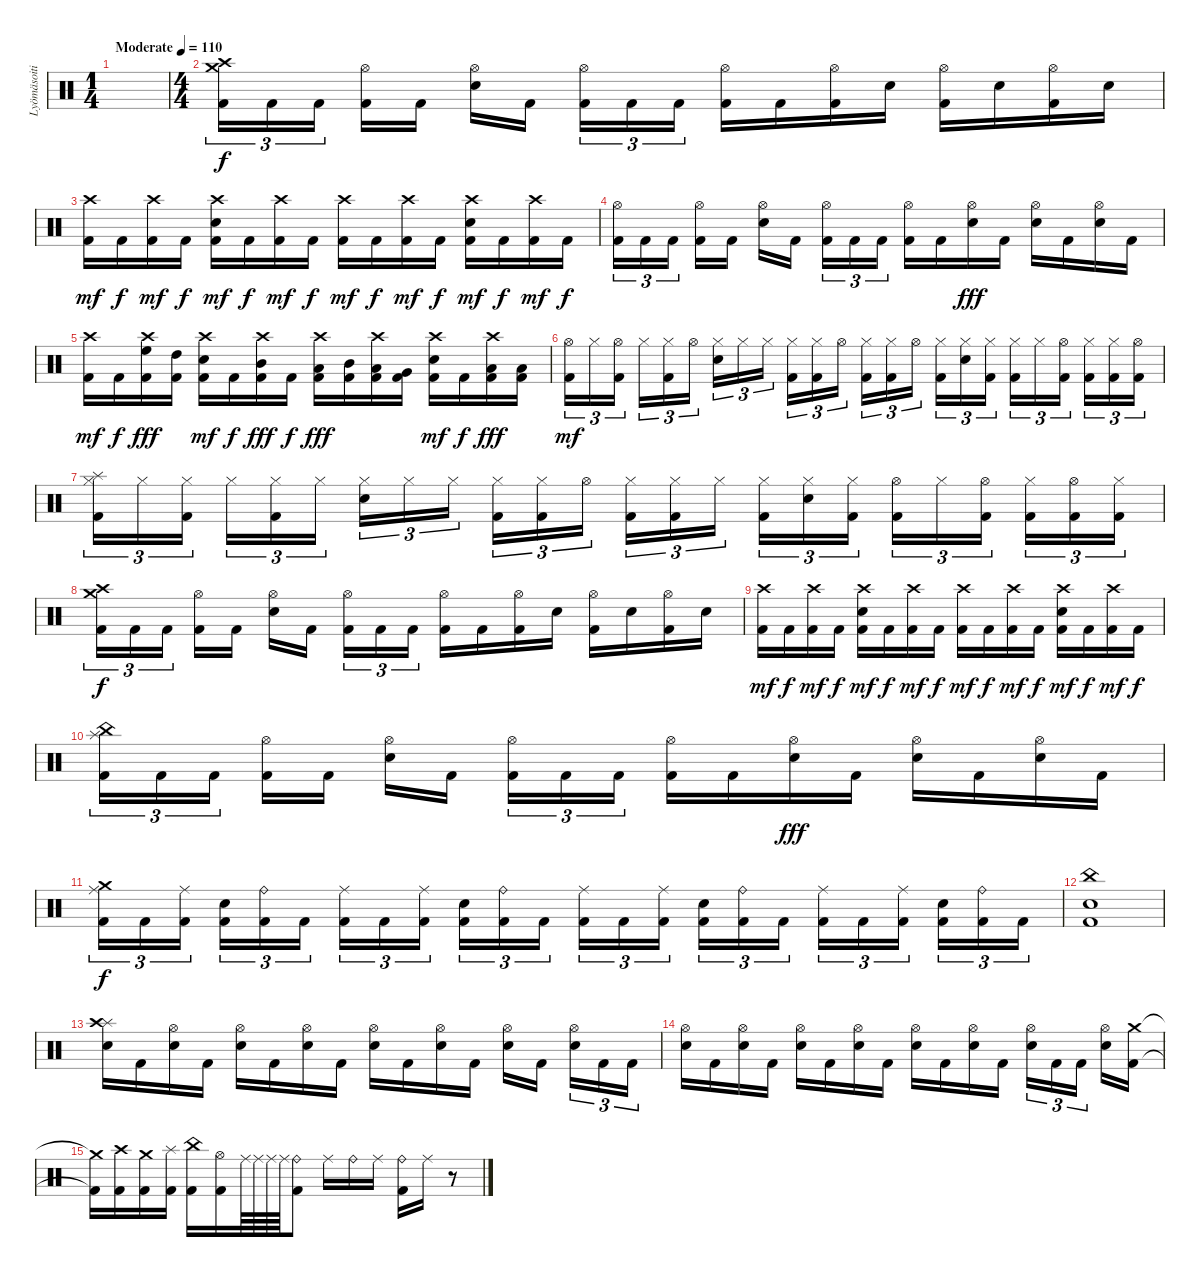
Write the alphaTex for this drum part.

\track ("Lyömäsoitin" "Lyömäsoiti") {mute instrument percussion}
\staff {score}
\articulation defaults
\ts (1 4)
\tempo (110 "Moderate")
\clef neutral
\ks c
|
\ts (4 4)
("Crash high (hit)" "Crash medium (hit)" "Kick (hit) 2").16{tu (3 2)} "Kick (hit) 2".16{tu (3 2)} "Kick (hit) 2".16{tu (3 2) beam splitsecondary} ("Hi-Hat (open)" "Kick (hit) 2").16 "Kick (hit) 2".16 ("Hi-Hat (open)" "Electric Snare (hit)").16 "Kick (hit) 2".16{beam splitsecondary} ("Hi-Hat (open)" "Kick (hit) 2").16{tu (3 2)} "Kick (hit) 2".16{tu (3 2)} "Kick (hit) 2".16{tu (3 2)} ("Hi-Hat (open)" "Kick (hit) 2").16 "Kick (hit) 2".16 ("Hi-Hat (open)" "Kick (hit) 2").16 "Electric Snare (hit)".16 ("Hi-Hat (open)" "Kick (hit) 2").16 "Electric Snare (hit)".16 ("Hi-Hat (open)" "Kick (hit) 2").16 "Electric Snare (hit)".16 |
("Crash high (hit)" "Kick (hit) 2").16{dy mf} "Kick (hit) 2".16{dy f} ("Crash high (hit)" "Kick (hit) 2").16{dy mf} "Kick (hit) 2".16{dy f} ("Crash high (hit)" "Electric Snare (hit)" "Kick (hit) 2").16{dy mf} "Kick (hit) 2".16{dy f} ("Crash high (hit)" "Kick (hit) 2").16{dy mf} "Kick (hit) 2".16{dy f} ("Crash high (hit)" "Kick (hit) 2").16{dy mf} "Kick (hit) 2".16{dy f} ("Crash high (hit)" "Kick (hit) 2").16{dy mf} "Kick (hit) 2".16{dy f} ("Crash high (hit)" "Electric Snare (hit)" "Kick (hit) 2").16{dy mf} "Kick (hit) 2".16{dy f} ("Crash high (hit)" "Kick (hit) 2").16{dy mf} "Kick (hit) 2".16{dy f} |
("Hi-Hat (open)" "Kick (hit) 2").16{tu (3 2)} "Kick (hit) 2".16{tu (3 2)} "Kick (hit) 2".16{tu (3 2) beam splitsecondary} ("Hi-Hat (open)" "Kick (hit) 2").16 "Kick (hit) 2".16 ("Hi-Hat (open)" "Electric Snare (hit)").16 "Kick (hit) 2".16{beam splitsecondary} ("Hi-Hat (open)" "Kick (hit) 2").16{tu (3 2)} "Kick (hit) 2".16{tu (3 2)} "Kick (hit) 2".16{tu (3 2)} ("Hi-Hat (open)" "Kick (hit) 2").16 "Kick (hit) 2".16 ("Hi-Hat (open)" "Electric Snare (hit)").16{dy fff} "Kick (hit) 2".16 ("Hi-Hat (open)" "Electric Snare (hit)").16 "Kick (hit) 2".16 ("Hi-Hat (open)" "Electric Snare (hit)").16 "Kick (hit) 2".16 |
("Crash high (hit)" "Kick (hit) 2").16{dy mf} "Kick (hit) 2".16{dy f} ("Crash high (hit)" "High Floor Tom (hit)" "Kick (hit) 2").16{dy fff} ("High Tom (hit)" "Kick (hit) 2").16 ("Crash high (hit)" "Electric Snare (hit)" "Kick (hit) 2").16{dy mf} "Kick (hit) 2".16{dy f} ("Crash high (hit)" "Mid Tom (hit)" "Kick (hit) 2").16{dy fff} "Kick (hit) 2".16{dy f} ("Crash high (hit)" "Low Tom (hit)" "Kick (hit) 2").16{dy fff} ("Mid Tom (hit)" "Kick (hit) 2").16 ("Crash high (hit)" "Low Tom (hit)" "Kick (hit) 2").16 ("Very Low Tom (hit)" "Kick (hit) 2").16 ("Crash high (hit)" "Electric Snare (hit)" "Kick (hit) 2").16{dy mf} "Kick (hit) 2".16{dy f} ("Crash high (hit)" "Low Floor Tom (hit)" "Kick (hit) 2").16{dy fff} ("Low Floor Tom (hit)" "Kick (hit) 2").16 |
("Hi-Hat (open)" "Kick (hit) 2").16{tu (3 2) dy mf} "Hi-Hat (closed)".16{tu (3 2)} ("Hi-Hat (open)" "Kick (hit) 2").16{tu (3 2) beam splitsecondary} "Hi-Hat (closed)".16{tu (3 2)} ("Hi-Hat (closed)" "Kick (hit) 2").16{tu (3 2)} "Hi-Hat (open)".16{tu (3 2)} ("Hi-Hat (closed)" "Electric Snare (hit)").16{tu (3 2)} "Hi-Hat (closed)".16{tu (3 2)} "Hi-Hat (closed)".16{tu (3 2) beam splitsecondary} ("Hi-Hat (closed)" "Kick (hit) 2").16{tu (3 2)} ("Hi-Hat (closed)" "Kick (hit) 2").16{tu (3 2)} "Hi-Hat (open)".16{tu (3 2)} ("Hi-Hat (closed)" "Kick (hit) 2").16{tu (3 2)} ("Hi-Hat (closed)" "Kick (hit) 2").16{tu (3 2)} "Hi-Hat (open)".16{tu (3 2) beam splitsecondary} ("Hi-Hat (closed)" "Kick (hit) 2").16{tu (3 2)} ("Hi-Hat (closed)" "Electric Snare (hit)").16{tu (3 2)} ("Hi-Hat (closed)" "Kick (hit) 2").16{tu (3 2)} ("Hi-Hat (closed)" "Kick (hit) 2").16{tu (3 2)} "Hi-Hat (closed)".16{tu (3 2)} ("Hi-Hat (open)" "Kick (hit) 2").16{tu (3 2) beam splitsecondary} ("Hi-Hat (closed)" "Kick (hit) 2").16{tu (3 2)} ("Hi-Hat (closed)" "Kick (hit) 2").16{tu (3 2)} ("Hi-Hat (open)" "Kick (hit) 2").16{tu (3 2)} |
("Splash (hit)" "Hi-Hat (closed)" "Kick (hit) 2").16{tu (3 2)} "Hi-Hat (closed)".16{tu (3 2)} ("Hi-Hat (closed)" "Kick (hit) 2").16{tu (3 2) beam splitsecondary} "Hi-Hat (closed)".16{tu (3 2)} ("Hi-Hat (closed)" "Kick (hit) 2").16{tu (3 2)} "Hi-Hat (closed)".16{tu (3 2)} ("Hi-Hat (closed)" "Electric Snare (hit)").16{tu (3 2)} "Hi-Hat (closed)".16{tu (3 2)} "Hi-Hat (closed)".16{tu (3 2) beam splitsecondary} ("Hi-Hat (closed)" "Kick (hit) 2").16{tu (3 2)} ("Hi-Hat (closed)" "Kick (hit) 2").16{tu (3 2)} "Hi-Hat (open)".16{tu (3 2)} ("Hi-Hat (closed)" "Kick (hit) 2").16{tu (3 2)} ("Hi-Hat (closed)" "Kick (hit) 2").16{tu (3 2)} "Hi-Hat (closed)".16{tu (3 2) beam splitsecondary} ("Hi-Hat (closed)" "Kick (hit) 2").16{tu (3 2)} ("Hi-Hat (closed)" "Electric Snare (hit)").16{tu (3 2)} ("Hi-Hat (closed)" "Kick (hit) 2").16{tu (3 2)} ("Hi-Hat (open)" "Kick (hit) 2").16{tu (3 2)} "Hi-Hat (closed)".16{tu (3 2)} ("Hi-Hat (open)" "Kick (hit) 2").16{tu (3 2) beam splitsecondary} ("Hi-Hat (closed)" "Kick (hit) 2").16{tu (3 2)} ("Hi-Hat (open)" "Kick (hit) 2").16{tu (3 2)} ("Hi-Hat (closed)" "Kick (hit) 2").16{tu (3 2)} |
("Crash high (hit)" "Crash medium (hit)" "Kick (hit) 2").16{tu (3 2) dy f} "Kick (hit) 2".16{tu (3 2)} "Kick (hit) 2".16{tu (3 2) beam splitsecondary} ("Hi-Hat (open)" "Kick (hit) 2").16 "Kick (hit) 2".16 ("Hi-Hat (open)" "Electric Snare (hit)").16 "Kick (hit) 2".16{beam splitsecondary} ("Hi-Hat (open)" "Kick (hit) 2").16{tu (3 2)} "Kick (hit) 2".16{tu (3 2)} "Kick (hit) 2".16{tu (3 2)} ("Hi-Hat (open)" "Kick (hit) 2").16 "Kick (hit) 2".16 ("Hi-Hat (open)" "Kick (hit) 2").16 "Electric Snare (hit)".16 ("Hi-Hat (open)" "Kick (hit) 2").16 "Electric Snare (hit)".16 ("Hi-Hat (open)" "Kick (hit) 2").16 "Electric Snare (hit)".16 |
("Crash high (hit)" "Kick (hit) 2").16{dy mf} "Kick (hit) 2".16{dy f} ("Crash high (hit)" "Kick (hit) 2").16{dy mf} "Kick (hit) 2".16{dy f} ("Crash high (hit)" "Electric Snare (hit)" "Kick (hit) 2").16{dy mf} "Kick (hit) 2".16{dy f} ("Crash high (hit)" "Kick (hit) 2").16{dy mf} "Kick (hit) 2".16{dy f} ("Crash high (hit)" "Kick (hit) 2").16{dy mf} "Kick (hit) 2".16{dy f} ("Crash high (hit)" "Kick (hit) 2").16{dy mf} "Kick (hit) 2".16{dy f} ("Crash high (hit)" "Electric Snare (hit)" "Kick (hit) 2").16{dy mf} "Kick (hit) 2".16{dy f} ("Crash high (hit)" "Kick (hit) 2").16{dy mf} "Kick (hit) 2".16{dy f} |
("Splash (hit)" "China (hit)" "Kick (hit) 2").16{tu (3 2)} "Kick (hit) 2".16{tu (3 2)} "Kick (hit) 2".16{tu (3 2) beam splitsecondary} ("Hi-Hat (open)" "Kick (hit) 2").16 "Kick (hit) 2".16 ("Hi-Hat (open)" "Electric Snare (hit)").16 "Kick (hit) 2".16{beam splitsecondary} ("Hi-Hat (open)" "Kick (hit) 2").16{tu (3 2)} "Kick (hit) 2".16{tu (3 2)} "Kick (hit) 2".16{tu (3 2)} ("Hi-Hat (open)" "Kick (hit) 2").16 "Kick (hit) 2".16 ("Hi-Hat (open)" "Electric Snare (hit)").16{dy fff} "Kick (hit) 2".16 ("Hi-Hat (open)" "Electric Snare (hit)").16 "Kick (hit) 2".16 ("Hi-Hat (open)" "Electric Snare (hit)").16 "Kick (hit) 2".16 |
("Crash medium (hit)" "Ride (middle)" "Kick (hit) 2").16{tu (3 2) dy f} "Kick (hit) 2".16{tu (3 2)} ("Ride (middle)" "Kick (hit) 2").16{tu (3 2) beam splitsecondary} ("Electric Snare (hit)" "Kick (hit) 2").16{tu (3 2)} ("Ride (bell)" "Kick (hit) 2").16{tu (3 2)} "Kick (hit) 2".16{tu (3 2)} ("Ride (middle)" "Kick (hit) 2").16{tu (3 2)} "Kick (hit) 2".16{tu (3 2)} ("Ride (middle)" "Kick (hit) 2").16{tu (3 2) beam splitsecondary} ("Electric Snare (hit)" "Kick (hit) 2").16{tu (3 2)} ("Ride (bell)" "Kick (hit) 2").16{tu (3 2)} "Kick (hit) 2".16{tu (3 2)} ("Ride (middle)" "Kick (hit) 2").16{tu (3 2)} "Kick (hit) 2".16{tu (3 2)} ("Ride (middle)" "Kick (hit) 2").16{tu (3 2) beam splitsecondary} ("Electric Snare (hit)" "Kick (hit) 2").16{tu (3 2)} ("Ride (bell)" "Kick (hit) 2").16{tu (3 2)} "Kick (hit) 2".16{tu (3 2)} ("Ride (middle)" "Kick (hit) 2").16{tu (3 2)} "Kick (hit) 2".16{tu (3 2)} ("Ride (middle)" "Kick (hit) 2").16{tu (3 2) beam splitsecondary} ("Electric Snare (hit)" "Kick (hit) 2").16{tu (3 2)} ("Ride (bell)" "Kick (hit) 2").16{tu (3 2)} "Kick (hit) 2".16{tu (3 2)} |
("China (hit)" "Electric Snare (hit)" "Kick (hit) 2").1 |
("Splash (hit)" "Crash high (hit)" "Electric Snare (hit)").16 "Kick (hit) 2".16 ("Hi-Hat (open)" "Electric Snare (hit)").16 "Kick (hit) 2".16 ("Hi-Hat (open)" "Electric Snare (hit)").16 "Kick (hit) 2".16 ("Hi-Hat (open)" "Electric Snare (hit)").16 "Kick (hit) 2".16 ("Hi-Hat (open)" "Electric Snare (hit)").16 "Kick (hit) 2".16 ("Hi-Hat (open)" "Electric Snare (hit)").16 "Kick (hit) 2".16 ("Hi-Hat (open)" "Electric Snare (hit)").16 "Kick (hit) 2".16{beam splitsecondary} ("Hi-Hat (open)" "Electric Snare (hit)").16{tu (3 2)} "Kick (hit) 2".16{tu (3 2)} "Kick (hit) 2".16{tu (3 2)} |
("Hi-Hat (open)" "Electric Snare (hit)").16 "Kick (hit) 2".16 ("Hi-Hat (open)" "Electric Snare (hit)").16 "Kick (hit) 2".16 ("Hi-Hat (open)" "Electric Snare (hit)").16 "Kick (hit) 2".16 ("Hi-Hat (open)" "Electric Snare (hit)").16 "Kick (hit) 2".16 ("Hi-Hat (open)" "Electric Snare (hit)").16 "Kick (hit) 2".16 ("Hi-Hat (open)" "Electric Snare (hit)").16 "Kick (hit) 2".16 ("Hi-Hat (open)" "Electric Snare (hit)").16{tu (3 2)} "Kick (hit) 2".16{tu (3 2)} "Kick (hit) 2".16{tu (3 2) beam splitsecondary} ("Hi-Hat (open)" "Electric Snare (hit)").16 ("Crash medium (hit)" "Kick (hit) 2").16 |
("Crash medium (hit)"{t} "Kick (hit) 2"{t}).16 ("Crash high (hit)" "Kick (hit) 2").16 ("Crash medium (hit)" "Kick (hit) 2").16 ("Splash (hit)" "Kick (hit) 2").16 ("China (hit)" "Kick (hit) 2").16 ("Hi-Hat (open)" "Kick (hit) 2").16 "Ride (middle)".64 "Ride (middle)".64 "Ride (middle)".64 "Ride (middle)".64 ("Ride (bell)" "Kick (hit) 2").8 "Ride (middle)".16 "Ride (bell)".16 "Ride (middle)".16 ("Ride (bell)" "Kick (hit) 2").16 "Ride (middle)".16 r.8
